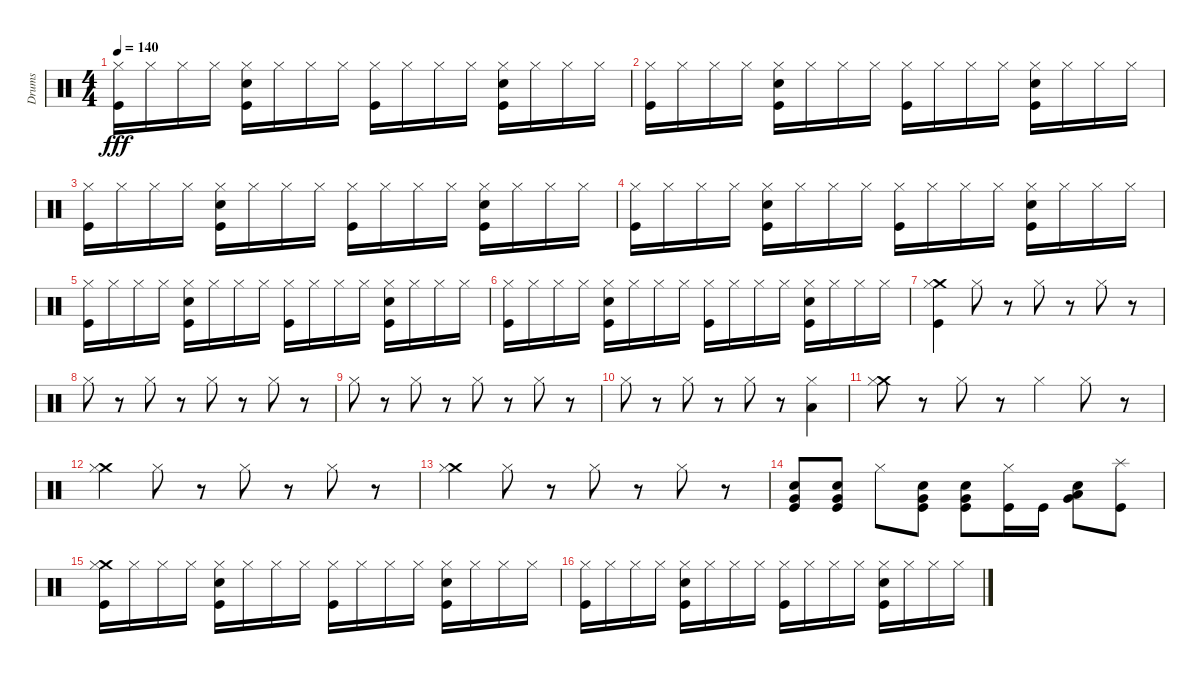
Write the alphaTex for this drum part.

\track ("Drums" "Drums") {instrument percussion}
\staff {score}
\articulation defaults
\ts (4 4)
\tempo 140
\clef neutral
\ks c
("Hi-Hat (closed)" "Kick (hit)").16{dy fff} "Hi-Hat (closed)".16 "Hi-Hat (closed)".16 "Hi-Hat (closed)".16 ("Hi-Hat (closed)" "Electric Snare (hit)" "Kick (hit)").16 "Hi-Hat (closed)".16 "Hi-Hat (closed)".16 "Hi-Hat (closed)".16 ("Hi-Hat (closed)" "Kick (hit)").16 "Hi-Hat (closed)".16 "Hi-Hat (closed)".16 "Hi-Hat (closed)".16 ("Hi-Hat (closed)" "Electric Snare (hit)" "Kick (hit)").16 "Hi-Hat (closed)".16 "Hi-Hat (closed)".16 "Hi-Hat (closed)".16 |
("Hi-Hat (closed)" "Kick (hit)").16 "Hi-Hat (closed)".16 "Hi-Hat (closed)".16 "Hi-Hat (closed)".16 ("Hi-Hat (closed)" "Electric Snare (hit)" "Kick (hit)").16 "Hi-Hat (closed)".16 "Hi-Hat (closed)".16 "Hi-Hat (closed)".16 ("Hi-Hat (closed)" "Kick (hit)").16 "Hi-Hat (closed)".16 "Hi-Hat (closed)".16 "Hi-Hat (closed)".16 ("Hi-Hat (closed)" "Electric Snare (hit)" "Kick (hit)").16 "Hi-Hat (closed)".16 "Hi-Hat (closed)".16 "Hi-Hat (closed)".16 |
("Hi-Hat (closed)" "Kick (hit)").16 "Hi-Hat (closed)".16 "Hi-Hat (closed)".16 "Hi-Hat (closed)".16 ("Hi-Hat (closed)" "Electric Snare (hit)" "Kick (hit)").16 "Hi-Hat (closed)".16 "Hi-Hat (closed)".16 "Hi-Hat (closed)".16 ("Hi-Hat (closed)" "Kick (hit)").16 "Hi-Hat (closed)".16 "Hi-Hat (closed)".16 "Hi-Hat (closed)".16 ("Hi-Hat (closed)" "Electric Snare (hit)" "Kick (hit)").16 "Hi-Hat (closed)".16 "Hi-Hat (closed)".16 "Hi-Hat (closed)".16 |
("Hi-Hat (closed)" "Kick (hit)").16 "Hi-Hat (closed)".16 "Hi-Hat (closed)".16 "Hi-Hat (closed)".16 ("Hi-Hat (closed)" "Electric Snare (hit)" "Kick (hit)").16 "Hi-Hat (closed)".16 "Hi-Hat (closed)".16 "Hi-Hat (closed)".16 ("Hi-Hat (closed)" "Kick (hit)").16 "Hi-Hat (closed)".16 "Hi-Hat (closed)".16 "Hi-Hat (closed)".16 ("Hi-Hat (closed)" "Electric Snare (hit)" "Kick (hit)").16 "Hi-Hat (closed)".16 "Hi-Hat (closed)".16 "Hi-Hat (closed)".16 |
("Hi-Hat (closed)" "Kick (hit)").16 "Hi-Hat (closed)".16 "Hi-Hat (closed)".16 "Hi-Hat (closed)".16 ("Hi-Hat (closed)" "Electric Snare (hit)" "Kick (hit)").16 "Hi-Hat (closed)".16 "Hi-Hat (closed)".16 "Hi-Hat (closed)".16 ("Hi-Hat (closed)" "Kick (hit)").16 "Hi-Hat (closed)".16 "Hi-Hat (closed)".16 "Hi-Hat (closed)".16 ("Hi-Hat (closed)" "Electric Snare (hit)" "Kick (hit)").16 "Hi-Hat (closed)".16 "Hi-Hat (closed)".16 "Hi-Hat (closed)".16 |
("Hi-Hat (closed)" "Kick (hit)").16 "Hi-Hat (closed)".16 "Hi-Hat (closed)".16 "Hi-Hat (closed)".16 ("Hi-Hat (closed)" "Electric Snare (hit)" "Kick (hit)").16 "Hi-Hat (closed)".16 "Hi-Hat (closed)".16 "Hi-Hat (closed)".16 ("Hi-Hat (closed)" "Kick (hit)").16 "Hi-Hat (closed)".16 "Hi-Hat (closed)".16 "Hi-Hat (closed)".16 ("Hi-Hat (closed)" "Electric Snare (hit)" "Kick (hit)").16 "Hi-Hat (closed)".16 "Hi-Hat (closed)".16 "Hi-Hat (closed)".16 |
("Crash medium (hit)" "Hi-Hat (closed)" "Kick (hit)").4 "Hi-Hat (closed)".8 r.8 "Hi-Hat (closed)".8 r.8 "Hi-Hat (closed)".8 r.8 |
"Hi-Hat (closed)".8 r.8 "Hi-Hat (closed)".8 r.8 "Hi-Hat (closed)".8 r.8 "Hi-Hat (closed)".8 r.8 |
"Hi-Hat (closed)".8 r.8 "Hi-Hat (closed)".8 r.8 "Hi-Hat (closed)".8 r.8 "Hi-Hat (closed)".8 r.8 |
"Hi-Hat (closed)".8 r.8 "Hi-Hat (closed)".8 r.8 "Hi-Hat (closed)".8 r.8 ("Low Tom (hit)" "Hi-Hat (closed)").4 |
("Crash medium (hit)" "Hi-Hat (closed)").8 r.8 "Hi-Hat (closed)".8 r.8 "Hi-Hat (closed)".4 "Hi-Hat (closed)".8 r.8 |
("Crash medium (hit)" "Hi-Hat (closed)").4 "Hi-Hat (closed)".8 r.8 "Hi-Hat (closed)".8 r.8 "Hi-Hat (closed)".8 r.8 |
("Crash medium (hit)" "Hi-Hat (closed)").4 "Hi-Hat (closed)".8 r.8 "Hi-Hat (closed)".8 r.8 "Hi-Hat (closed)".8 r.8 |
("Very Low Tom (hit)" "Electric Snare (hit)" "Kick (hit)").8 ("Very Low Tom (hit)" "Electric Snare (hit)" "Kick (hit)").8 "Hi-Hat (closed)".8 ("Very Low Tom (hit)" "Electric Snare (hit)" "Kick (hit)").8 ("Very Low Tom (hit)" "Electric Snare (hit)" "Kick (hit)").8 ("Hi-Hat (closed)" "Kick (hit)").16 "Kick (hit)".16 ("Low Tom (hit)" "Very Low Tom (hit)" "Electric Snare (hit)").8 ("Splash (hit)" "Kick (hit)").8 |
("Crash medium (hit)" "Hi-Hat (closed)" "Kick (hit)").16 "Hi-Hat (closed)".16 "Hi-Hat (closed)".16 "Hi-Hat (closed)".16 ("Hi-Hat (closed)" "Electric Snare (hit)" "Kick (hit)").16 "Hi-Hat (closed)".16 "Hi-Hat (closed)".16 "Hi-Hat (closed)".16 ("Hi-Hat (closed)" "Kick (hit)").16 "Hi-Hat (closed)".16 "Hi-Hat (closed)".16 "Hi-Hat (closed)".16 ("Hi-Hat (closed)" "Electric Snare (hit)" "Kick (hit)").16 "Hi-Hat (closed)".16 "Hi-Hat (closed)".16 "Hi-Hat (closed)".16 |
("Hi-Hat (closed)" "Kick (hit)").16 "Hi-Hat (closed)".16 "Hi-Hat (closed)".16 "Hi-Hat (closed)".16 ("Hi-Hat (closed)" "Electric Snare (hit)" "Kick (hit)").16 "Hi-Hat (closed)".16 "Hi-Hat (closed)".16 "Hi-Hat (closed)".16 ("Hi-Hat (closed)" "Kick (hit)").16 "Hi-Hat (closed)".16 "Hi-Hat (closed)".16 "Hi-Hat (closed)".16 ("Hi-Hat (closed)" "Electric Snare (hit)" "Kick (hit)").16 "Hi-Hat (closed)".16 "Hi-Hat (closed)".16 "Hi-Hat (closed)".16
